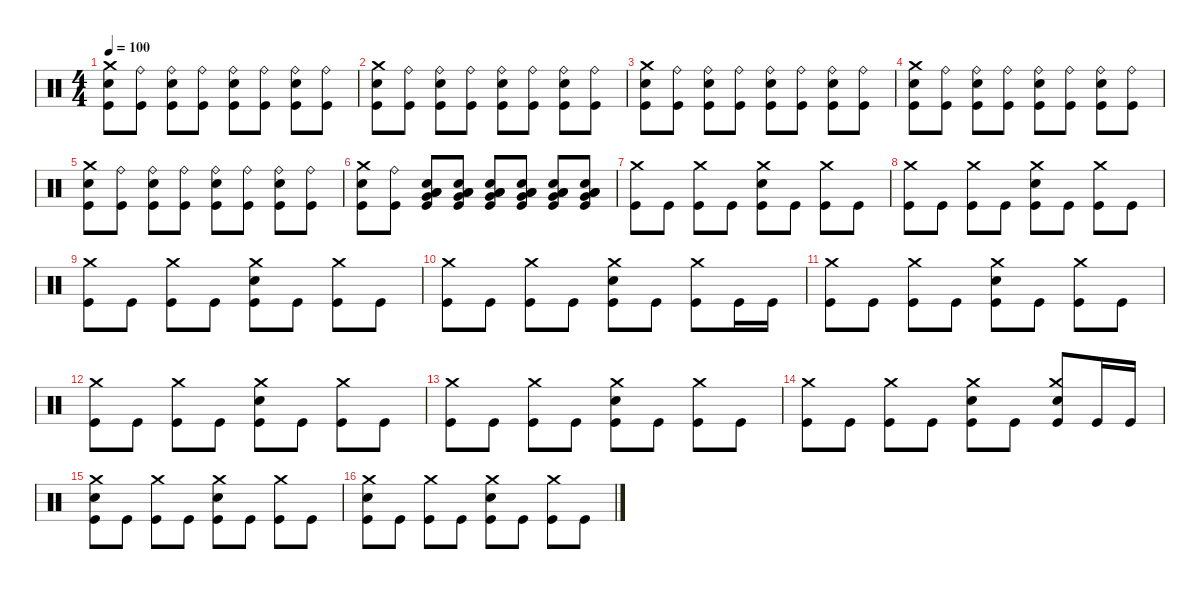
\defaultSystemsLayout 4
\hideDynamics
\bracketExtendMode nobrackets
\singleTrackTrackNamePolicy hidden
\multiTrackTrackNamePolicy hidden
\firstSystemTrackNameMode fullname
\otherSystemsTrackNameOrientation horizontal
\track ("Drumkit" "drm.") {instrument percussion}
\staff {score}
\articulation defaults
\ts (4 4)
\tempo 100
\clef neutral
\ks c
("Snare (hit) 2" "Kick (hit)" "Crash medium (hit)").8{dy mf beam Down} ("Kick (hit)" "Ride (bell)").8{beam Down} ("Snare (hit) 2" "Kick (hit)" "Ride (bell)").8{beam Down} ("Kick (hit)" "Ride (bell)").8{beam Down} ("Kick (hit)" "Snare (hit) 2" "Ride (bell)").8{beam Down} ("Kick (hit)" "Ride (bell)").8{beam Down} ("Kick (hit)" "Snare (hit) 2" "Ride (bell)").8{beam Down} ("Kick (hit)" "Ride (bell)").8{beam Down} |
("Snare (hit) 2" "Kick (hit)" "Crash medium (hit)").8{beam Down} ("Kick (hit)" "Ride (bell)").8{beam Down} ("Snare (hit) 2" "Kick (hit)" "Ride (bell)").8{beam Down} ("Kick (hit)" "Ride (bell)").8{beam Down} ("Kick (hit)" "Snare (hit) 2" "Ride (bell)").8{beam Down} ("Kick (hit)" "Ride (bell)").8{beam Down} ("Kick (hit)" "Snare (hit) 2" "Ride (bell)").8{beam Down} ("Kick (hit)" "Ride (bell)").8{beam Down} |
("Snare (hit) 2" "Kick (hit)" "Crash medium (hit)").8{beam Down} ("Kick (hit)" "Ride (bell)").8{beam Down} ("Snare (hit) 2" "Kick (hit)" "Ride (bell)").8{beam Down} ("Kick (hit)" "Ride (bell)").8{beam Down} ("Kick (hit)" "Snare (hit) 2" "Ride (bell)").8{beam Down} ("Kick (hit)" "Ride (bell)").8{beam Down} ("Kick (hit)" "Snare (hit) 2" "Ride (bell)").8{beam Down} ("Kick (hit)" "Ride (bell)").8{beam Down} |
("Snare (hit) 2" "Kick (hit)" "Crash medium (hit)").8{beam Down} ("Kick (hit)" "Ride (bell)").8{beam Down} ("Snare (hit) 2" "Kick (hit)" "Ride (bell)").8{beam Down} ("Kick (hit)" "Ride (bell)").8{beam Down} ("Kick (hit)" "Snare (hit) 2" "Ride (bell)").8{beam Down} ("Kick (hit)" "Ride (bell)").8{beam Down} ("Kick (hit)" "Snare (hit) 2" "Ride (bell)").8{beam Down} ("Kick (hit)" "Ride (bell)").8{beam Down} |
("Snare (hit) 2" "Kick (hit)" "Crash medium (hit)").8{beam Down} ("Kick (hit)" "Ride (bell)").8{beam Down} ("Snare (hit) 2" "Kick (hit)" "Ride (bell)").8{beam Down} ("Kick (hit)" "Ride (bell)").8{beam Down} ("Kick (hit)" "Snare (hit) 2" "Ride (bell)").8{beam Down} ("Kick (hit)" "Ride (bell)").8{beam Down} ("Kick (hit)" "Snare (hit) 2" "Ride (bell)").8{beam Down} ("Kick (hit)" "Ride (bell)").8{beam Down} |
("Snare (hit) 2" "Kick (hit)" "Crash medium (hit)").8{beam Down} ("Kick (hit)" "Ride (bell)").8{beam Down} ("Kick (hit)" "Low Floor Tom (hit)" "Very Low Tom (hit)" "Low Tom (hit)" "Snare (hit) 2").8{beam Up} ("Kick (hit)" "Low Floor Tom (hit)" "Very Low Tom (hit)" "Low Tom (hit)" "Snare (hit) 2").8{beam Up} ("Kick (hit)" "Low Floor Tom (hit)" "Very Low Tom (hit)" "Low Tom (hit)" "Snare (hit) 2").8{beam Up} ("Kick (hit)" "Low Floor Tom (hit)" "Very Low Tom (hit)" "Low Tom (hit)" "Snare (hit) 2").8{beam Up} ("Kick (hit)" "Low Floor Tom (hit)" "Very Low Tom (hit)" "Low Tom (hit)" "Snare (hit) 2").8{beam Up} ("Kick (hit)" "Low Floor Tom (hit)" "Very Low Tom (hit)" "Low Tom (hit)" "Snare (hit) 2").8{beam Up} |
("Kick (hit)" "Crash medium (hit)").8{beam Down} "Kick (hit)".8{beam Down} ("Kick (hit)" "Crash medium (hit)").8{beam Down} "Kick (hit)".8{beam Down} ("Kick (hit)" "Snare (hit) 2" "Crash medium (hit)").8{beam Down} "Kick (hit)".8{beam Down} ("Kick (hit)" "Crash medium (hit)").8{beam Down} "Kick (hit)".8{beam Down} |
("Kick (hit)" "Crash medium (hit)").8{beam Down} "Kick (hit)".8{beam Down} ("Kick (hit)" "Crash medium (hit)").8{beam Down} "Kick (hit)".8{beam Down} ("Kick (hit)" "Snare (hit) 2" "Crash medium (hit)").8{beam Down} "Kick (hit)".8{beam Down} ("Kick (hit)" "Crash medium (hit)").8{beam Down} "Kick (hit)".8{beam Down} |
("Kick (hit)" "Crash medium (hit)").8{beam Down} "Kick (hit)".8{beam Down} ("Kick (hit)" "Crash medium (hit)").8{beam Down} "Kick (hit)".8{beam Down} ("Kick (hit)" "Snare (hit) 2" "Crash medium (hit)").8{beam Down} "Kick (hit)".8{beam Down} ("Kick (hit)" "Crash medium (hit)").8{beam Down} "Kick (hit)".8{beam Down} |
("Kick (hit)" "Crash medium (hit)").8{beam Down} "Kick (hit)".8{beam Down} ("Kick (hit)" "Crash medium (hit)").8{beam Down} "Kick (hit)".8{beam Down} ("Kick (hit)" "Snare (hit) 2" "Crash medium (hit)").8{beam Down} "Kick (hit)".8{beam Down} ("Kick (hit)" "Crash medium (hit)").8{beam Down} "Kick (hit)".16{beam Down} "Kick (hit)".16{beam Down} |
("Kick (hit)" "Crash medium (hit)").8{beam Down} "Kick (hit)".8{beam Down} ("Kick (hit)" "Crash medium (hit)").8{beam Down} "Kick (hit)".8{beam Down} ("Kick (hit)" "Snare (hit) 2" "Crash medium (hit)").8{beam Down} "Kick (hit)".8{beam Down} ("Kick (hit)" "Crash medium (hit)").8{beam Down} "Kick (hit)".8{beam Down} |
("Kick (hit)" "Crash medium (hit)").8{beam Down} "Kick (hit)".8{beam Down} ("Kick (hit)" "Crash medium (hit)").8{beam Down} "Kick (hit)".8{beam Down} ("Kick (hit)" "Snare (hit) 2" "Crash medium (hit)").8{beam Down} "Kick (hit)".8{beam Down} ("Kick (hit)" "Crash medium (hit)").8{beam Down} "Kick (hit)".8{beam Down} |
("Kick (hit)" "Crash medium (hit)").8{beam Down} "Kick (hit)".8{beam Down} ("Kick (hit)" "Crash medium (hit)").8{beam Down} "Kick (hit)".8{beam Down} ("Kick (hit)" "Snare (hit) 2" "Crash medium (hit)").8{beam Down} "Kick (hit)".8{beam Down} ("Kick (hit)" "Crash medium (hit)").8{beam Down} "Kick (hit)".8{beam Down} |
("Kick (hit)" "Crash medium (hit)").8{beam Down} "Kick (hit)".8{beam Down} ("Kick (hit)" "Crash medium (hit)").8{beam Down} "Kick (hit)".8{beam Down} ("Kick (hit)" "Snare (hit) 2" "Crash medium (hit)").8{beam Down} "Kick (hit)".8{beam Down} ("Kick (hit)" "Crash medium (hit)" "Snare (hit) 2").8{beam Up} "Kick (hit)".16{beam Up} "Kick (hit)".16{beam Up} |
("Kick (hit)" "Crash medium (hit)" "Snare (hit) 2").8{beam Down} "Kick (hit)".8{beam Down} ("Kick (hit)" "Crash medium (hit)").8{beam Down} "Kick (hit)".8{beam Down} ("Kick (hit)" "Snare (hit) 2" "Crash medium (hit)").8{beam Down} "Kick (hit)".8{beam Down} ("Kick (hit)" "Crash medium (hit)").8{beam Down} "Kick (hit)".8{beam Down} |
("Kick (hit)" "Crash medium (hit)" "Snare (hit) 2").8{beam Down} "Kick (hit)".8{beam Down} ("Kick (hit)" "Crash medium (hit)").8{beam Down} "Kick (hit)".8{beam Down} ("Kick (hit)" "Snare (hit) 2" "Crash medium (hit)").8{beam Down} "Kick (hit)".8{beam Down} ("Kick (hit)" "Crash medium (hit)").8{beam Down} "Kick (hit)".8{beam Down}
